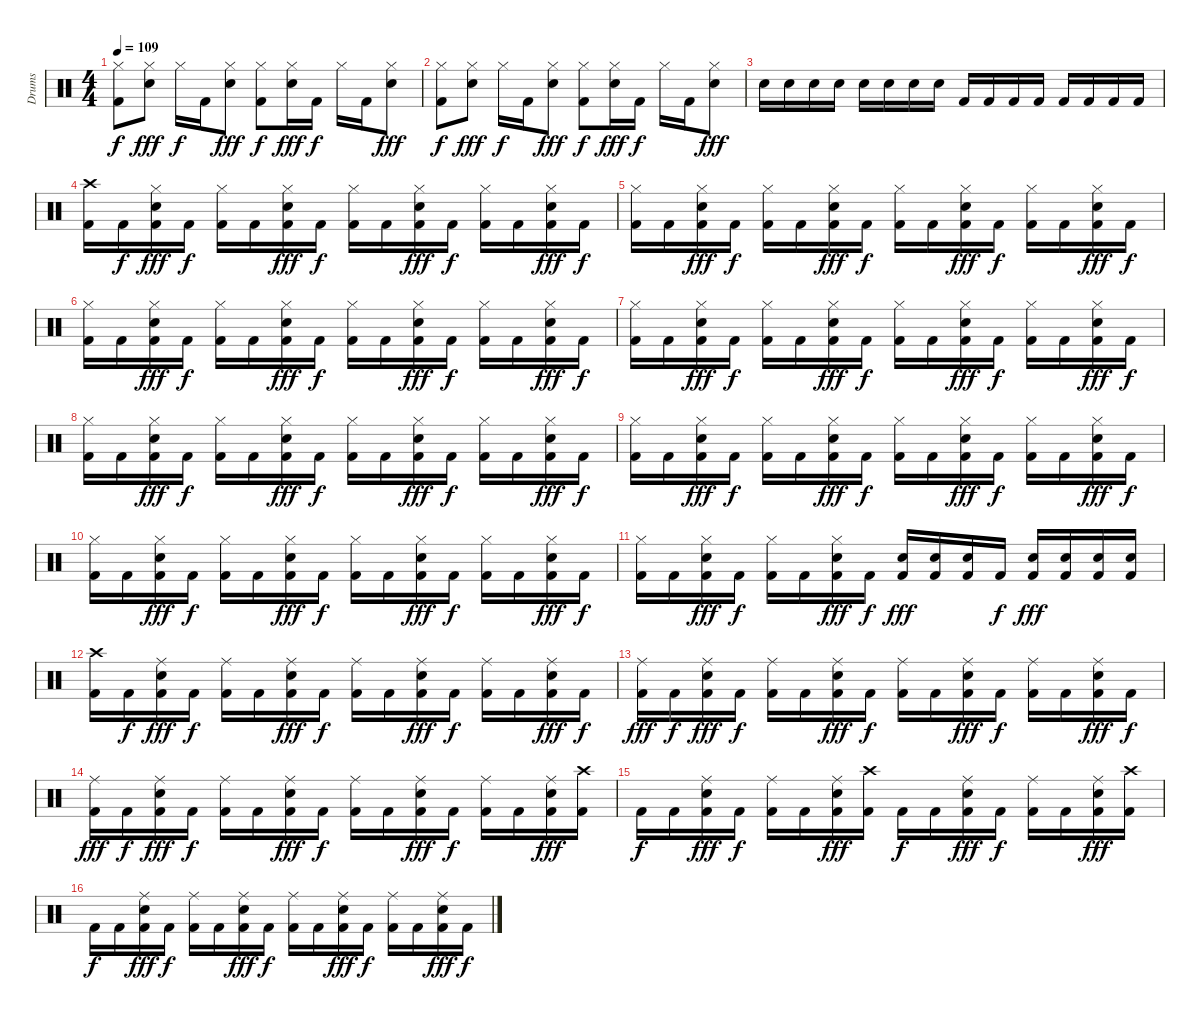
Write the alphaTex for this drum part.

\track ("Drums" "Drums") {instrument percussion}
\staff {score}
\articulation defaults
\ts (4 4)
\tempo 109
\clef neutral
\ks c
("Hi-Hat (closed)" "Kick (hit) 2").8{dy f} ("Hi-Hat (closed)" "Snare (hit) 2").8{dy fff} "Hi-Hat (closed)".16{dy f} "Kick (hit) 2".16 ("Hi-Hat (closed)" "Snare (hit) 2").8{dy fff} ("Kick (hit) 2" "Hi-Hat (closed)").8{dy f} ("Hi-Hat (closed)" "Snare (hit) 2").16{dy fff} "Kick (hit) 2".16{dy f} "Hi-Hat (closed)".16 "Kick (hit) 2".16 ("Hi-Hat (closed)" "Snare (hit) 2").8{dy fff} |
("Hi-Hat (closed)" "Kick (hit) 2").8{dy f} ("Hi-Hat (closed)" "Snare (hit) 2").8{dy fff} "Hi-Hat (closed)".16{dy f} "Kick (hit) 2".16 ("Hi-Hat (closed)" "Snare (hit) 2").8{dy fff} ("Hi-Hat (closed)" "Kick (hit) 2").8{dy f} ("Snare (hit) 2" "Hi-Hat (closed)").16{dy fff} "Kick (hit) 2".16{dy f} "Hi-Hat (closed)".16 "Kick (hit) 2".16 ("Hi-Hat (closed)" "Snare (hit) 2").8{dy fff} |
"Snare (hit) 2".16 "Snare (hit) 2".16 "Snare (hit) 2".16 "Snare (hit) 2".16 "Snare (hit) 2".16 "Snare (hit) 2".16 "Snare (hit) 2".16 "Snare (hit) 2".16 "Kick (hit) 2".16 "Kick (hit) 2".16 "Kick (hit) 2".16 "Kick (hit) 2".16 "Kick (hit) 2".16 "Kick (hit) 2".16 "Kick (hit) 2".16 "Kick (hit) 2".16 |
("Kick (hit) 2" "Crash high (hit)").16 "Kick (hit) 2".16{dy f} ("Hi-Hat (closed)" "Kick (hit) 2" "Snare (hit) 2").16{dy fff} "Kick (hit) 2".16{dy f} ("Kick (hit) 2" "Hi-Hat (closed)").16 "Kick (hit) 2".16 ("Hi-Hat (closed)" "Kick (hit) 2" "Snare (hit) 2").16{dy fff} "Kick (hit) 2".16{dy f} ("Kick (hit) 2" "Hi-Hat (closed)").16 "Kick (hit) 2".16 ("Hi-Hat (closed)" "Kick (hit) 2" "Snare (hit) 2").16{dy fff} "Kick (hit) 2".16{dy f} ("Kick (hit) 2" "Hi-Hat (closed)").16 "Kick (hit) 2".16 ("Hi-Hat (closed)" "Kick (hit) 2" "Snare (hit) 2").16{dy fff} "Kick (hit) 2".16{dy f} |
("Kick (hit) 2" "Hi-Hat (closed)").16 "Kick (hit) 2".16 ("Hi-Hat (closed)" "Kick (hit) 2" "Snare (hit) 2").16{dy fff} "Kick (hit) 2".16{dy f} ("Kick (hit) 2" "Hi-Hat (closed)").16 "Kick (hit) 2".16 ("Hi-Hat (closed)" "Kick (hit) 2" "Snare (hit) 2").16{dy fff} "Kick (hit) 2".16{dy f} ("Kick (hit) 2" "Hi-Hat (closed)").16 "Kick (hit) 2".16 ("Hi-Hat (closed)" "Kick (hit) 2" "Snare (hit) 2").16{dy fff} "Kick (hit) 2".16{dy f} ("Kick (hit) 2" "Hi-Hat (closed)").16 "Kick (hit) 2".16 ("Hi-Hat (closed)" "Kick (hit) 2" "Snare (hit) 2").16{dy fff} "Kick (hit) 2".16{dy f} |
("Kick (hit) 2" "Hi-Hat (closed)").16 "Kick (hit) 2".16 ("Hi-Hat (closed)" "Kick (hit) 2" "Snare (hit) 2").16{dy fff} "Kick (hit) 2".16{dy f} ("Kick (hit) 2" "Hi-Hat (closed)").16 "Kick (hit) 2".16 ("Hi-Hat (closed)" "Kick (hit) 2" "Snare (hit) 2").16{dy fff} "Kick (hit) 2".16{dy f} ("Kick (hit) 2" "Hi-Hat (closed)").16 "Kick (hit) 2".16 ("Hi-Hat (closed)" "Kick (hit) 2" "Snare (hit) 2").16{dy fff} "Kick (hit) 2".16{dy f} ("Kick (hit) 2" "Hi-Hat (closed)").16 "Kick (hit) 2".16 ("Hi-Hat (closed)" "Kick (hit) 2" "Snare (hit) 2").16{dy fff} "Kick (hit) 2".16{dy f} |
("Kick (hit) 2" "Hi-Hat (closed)").16 "Kick (hit) 2".16 ("Hi-Hat (closed)" "Kick (hit) 2" "Snare (hit) 2").16{dy fff} "Kick (hit) 2".16{dy f} ("Kick (hit) 2" "Hi-Hat (closed)").16 "Kick (hit) 2".16 ("Hi-Hat (closed)" "Kick (hit) 2" "Snare (hit) 2").16{dy fff} "Kick (hit) 2".16{dy f} ("Kick (hit) 2" "Hi-Hat (closed)").16 "Kick (hit) 2".16 ("Hi-Hat (closed)" "Kick (hit) 2" "Snare (hit) 2").16{dy fff} "Kick (hit) 2".16{dy f} ("Kick (hit) 2" "Hi-Hat (closed)").16 "Kick (hit) 2".16 ("Hi-Hat (closed)" "Kick (hit) 2" "Snare (hit) 2").16{dy fff} "Kick (hit) 2".16{dy f} |
("Kick (hit) 2" "Hi-Hat (closed)").16 "Kick (hit) 2".16 ("Hi-Hat (closed)" "Kick (hit) 2" "Snare (hit) 2").16{dy fff} "Kick (hit) 2".16{dy f} ("Kick (hit) 2" "Hi-Hat (closed)").16 "Kick (hit) 2".16 ("Hi-Hat (closed)" "Kick (hit) 2" "Snare (hit) 2").16{dy fff} "Kick (hit) 2".16{dy f} ("Kick (hit) 2" "Hi-Hat (closed)").16 "Kick (hit) 2".16 ("Hi-Hat (closed)" "Kick (hit) 2" "Snare (hit) 2").16{dy fff} "Kick (hit) 2".16{dy f} ("Hi-Hat (closed)" "Kick (hit) 2").16 "Kick (hit) 2".16 ("Kick (hit) 2" "Snare (hit) 2" "Hi-Hat (closed)").16{dy fff} "Kick (hit) 2".16{dy f} |
("Kick (hit) 2" "Hi-Hat (closed)").16 "Kick (hit) 2".16 ("Hi-Hat (closed)" "Kick (hit) 2" "Snare (hit) 2").16{dy fff} "Kick (hit) 2".16{dy f} ("Kick (hit) 2" "Hi-Hat (closed)").16 "Kick (hit) 2".16 ("Hi-Hat (closed)" "Kick (hit) 2" "Snare (hit) 2").16{dy fff} "Kick (hit) 2".16{dy f} ("Kick (hit) 2" "Hi-Hat (closed)").16 "Kick (hit) 2".16 ("Hi-Hat (closed)" "Kick (hit) 2" "Snare (hit) 2").16{dy fff} "Kick (hit) 2".16{dy f} ("Kick (hit) 2" "Hi-Hat (closed)").16 "Kick (hit) 2".16 ("Hi-Hat (closed)" "Kick (hit) 2" "Snare (hit) 2").16{dy fff} "Kick (hit) 2".16{dy f} |
("Hi-Hat (closed)" "Kick (hit) 2").16 "Kick (hit) 2".16 ("Kick (hit) 2" "Snare (hit) 2" "Hi-Hat (closed)").16{dy fff} "Kick (hit) 2".16{dy f} ("Hi-Hat (closed)" "Kick (hit) 2").16 "Kick (hit) 2".16 ("Kick (hit) 2" "Snare (hit) 2" "Hi-Hat (closed)").16{dy fff} "Kick (hit) 2".16{dy f} ("Hi-Hat (closed)" "Kick (hit) 2").16 "Kick (hit) 2".16 ("Kick (hit) 2" "Snare (hit) 2" "Hi-Hat (closed)").16{dy fff} "Kick (hit) 2".16{dy f} ("Hi-Hat (closed)" "Kick (hit) 2").16 "Kick (hit) 2".16 ("Kick (hit) 2" "Snare (hit) 2" "Hi-Hat (closed)").16{dy fff} "Kick (hit) 2".16{dy f} |
("Kick (hit) 2" "Hi-Hat (closed)").16 "Kick (hit) 2".16 ("Hi-Hat (closed)" "Kick (hit) 2" "Snare (hit) 2").16{dy fff} "Kick (hit) 2".16{dy f} ("Kick (hit) 2" "Hi-Hat (closed)").16 "Kick (hit) 2".16 ("Hi-Hat (closed)" "Kick (hit) 2" "Snare (hit) 2").16{dy fff} "Kick (hit) 2".16{dy f} ("Kick (hit) 2" "Snare (hit) 2").16{dy fff} ("Kick (hit) 2" "Snare (hit) 2").16 ("Kick (hit) 2" "Snare (hit) 2").16 "Kick (hit) 2".16{dy f} ("Kick (hit) 2" "Snare (hit) 2").16{dy fff} ("Kick (hit) 2" "Snare (hit) 2").16 ("Kick (hit) 2" "Snare (hit) 2").16 ("Kick (hit) 2" "Snare (hit) 2").16 |
("Kick (hit) 2" "Crash high (hit)").16 "Kick (hit) 2".16{dy f} ("Kick (hit) 2" "Snare (hit) 2" "Ride (middle)").16{dy fff} "Kick (hit) 2".16{dy f} ("Kick (hit) 2" "Ride (middle)").16 "Kick (hit) 2".16 ("Kick (hit) 2" "Ride (middle)" "Snare (hit) 2").16{dy fff} "Kick (hit) 2".16{dy f} ("Kick (hit) 2" "Ride (middle)").16 "Kick (hit) 2".16 ("Kick (hit) 2" "Ride (middle)" "Snare (hit) 2").16{dy fff} "Kick (hit) 2".16{dy f} ("Kick (hit) 2" "Ride (middle)").16 "Kick (hit) 2".16 ("Snare (hit) 2" "Ride (middle)" "Kick (hit) 2").16{dy fff} "Kick (hit) 2".16{dy f} |
("Kick (hit) 2" "Ride (middle)").16{dy fff} "Kick (hit) 2".16{dy f} ("Kick (hit) 2" "Ride (middle)" "Snare (hit) 2").16{dy fff} "Kick (hit) 2".16{dy f} ("Kick (hit) 2" "Ride (middle)").16 "Kick (hit) 2".16 ("Snare (hit) 2" "Kick (hit) 2" "Ride (middle)").16{dy fff} "Kick (hit) 2".16{dy f} ("Ride (middle)" "Kick (hit) 2").16 "Kick (hit) 2".16 ("Kick (hit) 2" "Snare (hit) 2" "Ride (middle)").16{dy fff} "Kick (hit) 2".16{dy f} ("Kick (hit) 2" "Ride (middle)").16 "Kick (hit) 2".16 ("Ride (middle)" "Kick (hit) 2" "Snare (hit) 2").16{dy fff} "Kick (hit) 2".16{dy f} |
("Kick (hit) 2" "Ride (middle)").16{dy fff} "Kick (hit) 2".16{dy f} ("Kick (hit) 2" "Ride (middle)" "Snare (hit) 2").16{dy fff} "Kick (hit) 2".16{dy f} ("Kick (hit) 2" "Ride (middle)").16 "Kick (hit) 2".16 ("Snare (hit) 2" "Kick (hit) 2" "Ride (middle)").16{dy fff} "Kick (hit) 2".16{dy f} ("Ride (middle)" "Kick (hit) 2").16 "Kick (hit) 2".16 ("Kick (hit) 2" "Snare (hit) 2" "Ride (middle)").16{dy fff} "Kick (hit) 2".16{dy f} ("Kick (hit) 2" "Ride (middle)").16 "Kick (hit) 2".16 ("Snare (hit) 2" "Ride (middle)" "Kick (hit) 2").16{dy fff} ("Kick (hit) 2" "Crash high (hit)").16 |
"Kick (hit) 2".16{dy f} "Kick (hit) 2".16 ("Snare (hit) 2" "Kick (hit) 2" "Ride (middle)").16{dy fff} "Kick (hit) 2".16{dy f} ("Kick (hit) 2" "Ride (middle)").16 "Kick (hit) 2".16 ("Ride (middle)" "Kick (hit) 2" "Snare (hit) 2").16{dy fff} ("Kick (hit) 2" "Crash high (hit)").16 "Kick (hit) 2".16{dy f} "Kick (hit) 2".16 ("Snare (hit) 2" "Kick (hit) 2" "Ride (middle)").16{dy fff} "Kick (hit) 2".16{dy f} ("Ride (middle)" "Kick (hit) 2").16 "Kick (hit) 2".16 ("Ride (middle)" "Kick (hit) 2" "Snare (hit) 2").16{dy fff} ("Kick (hit) 2" "Crash high (hit)").16 |
"Kick (hit) 2".16{dy f} "Kick (hit) 2".16 ("Kick (hit) 2" "Ride (middle)" "Snare (hit) 2").16{dy fff} "Kick (hit) 2".16{dy f} ("Kick (hit) 2" "Ride (middle)").16 "Kick (hit) 2".16 ("Snare (hit) 2" "Kick (hit) 2" "Ride (middle)").16{dy fff} "Kick (hit) 2".16{dy f} ("Ride (middle)" "Kick (hit) 2").16 "Kick (hit) 2".16 ("Kick (hit) 2" "Snare (hit) 2" "Ride (middle)").16{dy fff} "Kick (hit) 2".16{dy f} ("Kick (hit) 2" "Ride (middle)").16 "Kick (hit) 2".16 ("Ride (middle)" "Kick (hit) 2" "Snare (hit) 2").16{dy fff} "Kick (hit) 2".16{dy f}
